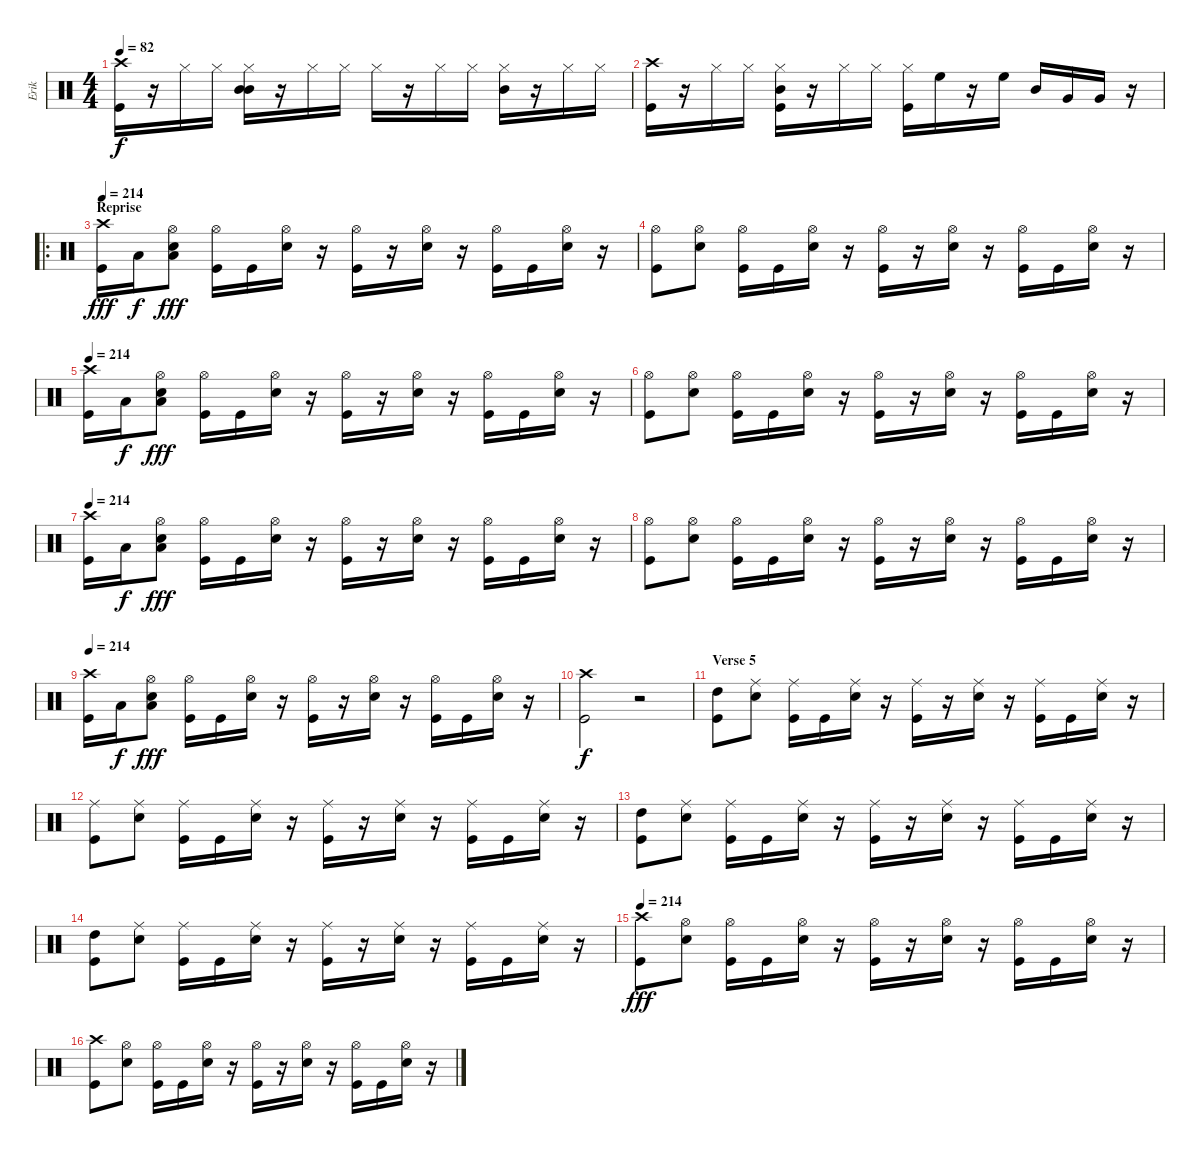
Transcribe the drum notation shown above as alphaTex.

\track ("Erik" "Erik") {instrument percussion}
\staff {score}
\articulation defaults
\ts (4 4)
\tempo 82
\clef neutral
\ks c
("Kick (hit)" "Crash high (hit)").16{dy f} r.16 "Hi-Hat (closed)".16 "Hi-Hat (closed)".16 ("Hi-Hat (closed)" "Mid Tom (hit)" "Mid Tom (hit)").16 r.16 "Hi-Hat (closed)".16 "Hi-Hat (closed)".16 "Hi-Hat (closed)".16 r.16 "Hi-Hat (closed)".16 "Hi-Hat (closed)".16 ("Hi-Hat (closed)" "Mid Tom (hit)").16 r.16 "Hi-Hat (closed)".16 "Hi-Hat (closed)".16 |
("Kick (hit)" "Crash high (hit)").16 r.16 "Hi-Hat (closed)".16 "Hi-Hat (closed)".16 ("Hi-Hat (closed)" "Mid Tom (hit)" "Kick (hit)").16 r.16 "Hi-Hat (closed)".16 "Hi-Hat (closed)".16 ("Hi-Hat (closed)" "Kick (hit)").16 "High Floor Tom (hit)".16 r.16 "High Floor Tom (hit)".16 "Mid Tom (hit)".16 "Very Low Tom (hit)".16 "Very Low Tom (hit)".16 r.16 |
\ro
\section ("" "Reprise")
\tempo 214
("Crash high (hit)" "Kick (hit)").16{dy fff} "Low Floor Tom (hit)".16{dy f} ("Hi-Hat (open)" "Electric Snare (hit)" "Low Floor Tom (hit)").8{dy fff} ("Hi-Hat (open)" "Kick (hit)").16 "Kick (hit)".16 ("Electric Snare (hit)" "Hi-Hat (open)").16 r.16 ("Hi-Hat (open)" "Kick (hit)").16 r.16 ("Hi-Hat (open)" "Electric Snare (hit)").16 r.16 ("Hi-Hat (open)" "Kick (hit)").16 "Kick (hit)".16 ("Hi-Hat (open)" "Electric Snare (hit)").16 r.16 |
("Hi-Hat (open)" "Kick (hit)").8 ("Hi-Hat (open)" "Electric Snare (hit)").8 ("Hi-Hat (open)" "Kick (hit)").16 "Kick (hit)".16 ("Hi-Hat (open)" "Electric Snare (hit)").16 r.16 ("Hi-Hat (open)" "Kick (hit)").16 r.16 ("Hi-Hat (open)" "Electric Snare (hit)").16 r.16 ("Hi-Hat (open)" "Kick (hit)").16 "Kick (hit)".16 ("Hi-Hat (open)" "Electric Snare (hit)").16 r.16 |
\tempo 214
("Crash high (hit)" "Kick (hit)").16 "Low Floor Tom (hit)".16{dy f} ("Hi-Hat (open)" "Electric Snare (hit)" "Low Floor Tom (hit)").8{dy fff} ("Hi-Hat (open)" "Kick (hit)").16 "Kick (hit)".16 ("Electric Snare (hit)" "Hi-Hat (open)").16 r.16 ("Hi-Hat (open)" "Kick (hit)").16 r.16 ("Hi-Hat (open)" "Electric Snare (hit)").16 r.16 ("Hi-Hat (open)" "Kick (hit)").16 "Kick (hit)".16 ("Hi-Hat (open)" "Electric Snare (hit)").16 r.16 |
("Hi-Hat (open)" "Kick (hit)").8 ("Hi-Hat (open)" "Electric Snare (hit)").8 ("Hi-Hat (open)" "Kick (hit)").16 "Kick (hit)".16 ("Hi-Hat (open)" "Electric Snare (hit)").16 r.16 ("Hi-Hat (open)" "Kick (hit)").16 r.16 ("Hi-Hat (open)" "Electric Snare (hit)").16 r.16 ("Hi-Hat (open)" "Kick (hit)").16 "Kick (hit)".16 ("Hi-Hat (open)" "Electric Snare (hit)").16 r.16 |
\tempo 214
("Crash high (hit)" "Kick (hit)").16 "Low Floor Tom (hit)".16{dy f} ("Hi-Hat (open)" "Electric Snare (hit)" "Low Floor Tom (hit)").8{dy fff} ("Hi-Hat (open)" "Kick (hit)").16 "Kick (hit)".16 ("Electric Snare (hit)" "Hi-Hat (open)").16 r.16 ("Hi-Hat (open)" "Kick (hit)").16 r.16 ("Hi-Hat (open)" "Electric Snare (hit)").16 r.16 ("Hi-Hat (open)" "Kick (hit)").16 "Kick (hit)".16 ("Hi-Hat (open)" "Electric Snare (hit)").16 r.16 |
("Hi-Hat (open)" "Kick (hit)").8 ("Hi-Hat (open)" "Electric Snare (hit)").8 ("Hi-Hat (open)" "Kick (hit)").16 "Kick (hit)".16 ("Hi-Hat (open)" "Electric Snare (hit)").16 r.16 ("Hi-Hat (open)" "Kick (hit)").16 r.16 ("Hi-Hat (open)" "Electric Snare (hit)").16 r.16 ("Hi-Hat (open)" "Kick (hit)").16 "Kick (hit)".16 ("Hi-Hat (open)" "Electric Snare (hit)").16 r.16 |
\tempo 214
("Crash high (hit)" "Kick (hit)").16 "Low Floor Tom (hit)".16{dy f} ("Hi-Hat (open)" "Electric Snare (hit)" "Low Floor Tom (hit)").8{dy fff} ("Hi-Hat (open)" "Kick (hit)").16 "Kick (hit)".16 ("Electric Snare (hit)" "Hi-Hat (open)").16 r.16 ("Hi-Hat (open)" "Kick (hit)").16 r.16 ("Hi-Hat (open)" "Electric Snare (hit)").16 r.16 ("Hi-Hat (open)" "Kick (hit)").16 "Kick (hit)".16 ("Hi-Hat (open)" "Electric Snare (hit)").16 r.16 |
("Kick (hit)" "Crash high (hit)").2{dy f} r.2 |
\section ("" "Verse 5")
("High Tom (hit)" "Kick (hit)").8 ("Snare (hit) 2" "Ride (middle)").8 ("Ride (middle)" "Kick (hit)").16 "Kick (hit)".16 ("Snare (hit) 2" "Ride (middle)").16 r.16 ("Ride (middle)" "Kick (hit)").16 r.16 ("Ride (middle)" "Snare (hit) 2").16 r.16 ("Ride (middle)" "Kick (hit)").16 "Kick (hit)".16 ("Ride (middle)" "Snare (hit) 2").16 r.16 |
("Ride (middle)" "Kick (hit)").8 ("Snare (hit) 2" "Ride (middle)").8 ("Ride (middle)" "Kick (hit)").16 "Kick (hit)".16 ("Snare (hit) 2" "Ride (middle)").16 r.16 ("Ride (middle)" "Kick (hit)").16 r.16 ("Ride (middle)" "Snare (hit) 2").16 r.16 ("Ride (middle)" "Kick (hit)").16 "Kick (hit)".16 ("Ride (middle)" "Snare (hit) 2").16 r.16 |
("High Tom (hit)" "Kick (hit)").8 ("Snare (hit) 2" "Ride (middle)").8 ("Ride (middle)" "Kick (hit)").16 "Kick (hit)".16 ("Snare (hit) 2" "Ride (middle)").16 r.16 ("Ride (middle)" "Kick (hit)").16 r.16 ("Ride (middle)" "Snare (hit) 2").16 r.16 ("Ride (middle)" "Kick (hit)").16 "Kick (hit)".16 ("Ride (middle)" "Snare (hit) 2").16 r.16 |
("High Tom (hit)" "Kick (hit)").8 ("Snare (hit) 2" "Ride (middle)").8 ("Ride (middle)" "Kick (hit)").16 "Kick (hit)".16 ("Snare (hit) 2" "Ride (middle)").16 r.16 ("Ride (middle)" "Kick (hit)").16 r.16 ("Ride (middle)" "Snare (hit) 2").16 r.16 ("Ride (middle)" "Kick (hit)").16 "Kick (hit)".16 ("Ride (middle)" "Snare (hit) 2").16 r.16 |
\tempo 214
("Crash high (hit)" "Kick (hit)").8{dy fff} ("Electric Snare (hit)" "Hi-Hat (open)").8 ("Kick (hit)" "Hi-Hat (open)").16 "Kick (hit)".16 ("Electric Snare (hit)" "Hi-Hat (open)").16 r.16 ("Kick (hit)" "Hi-Hat (open)").16 r.16 ("Electric Snare (hit)" "Hi-Hat (open)").16 r.16 ("Kick (hit)" "Hi-Hat (open)").16 "Kick (hit)".16 ("Electric Snare (hit)" "Hi-Hat (open)").16 r.16 |
("Crash high (hit)" "Kick (hit)").8 ("Electric Snare (hit)" "Hi-Hat (open)").8 ("Kick (hit)" "Hi-Hat (open)").16 "Kick (hit)".16 ("Electric Snare (hit)" "Hi-Hat (open)").16 r.16 ("Kick (hit)" "Hi-Hat (open)").16 r.16 ("Electric Snare (hit)" "Hi-Hat (open)").16 r.16 ("Kick (hit)" "Hi-Hat (open)").16 "Kick (hit)".16 ("Electric Snare (hit)" "Hi-Hat (open)").16 r.16
